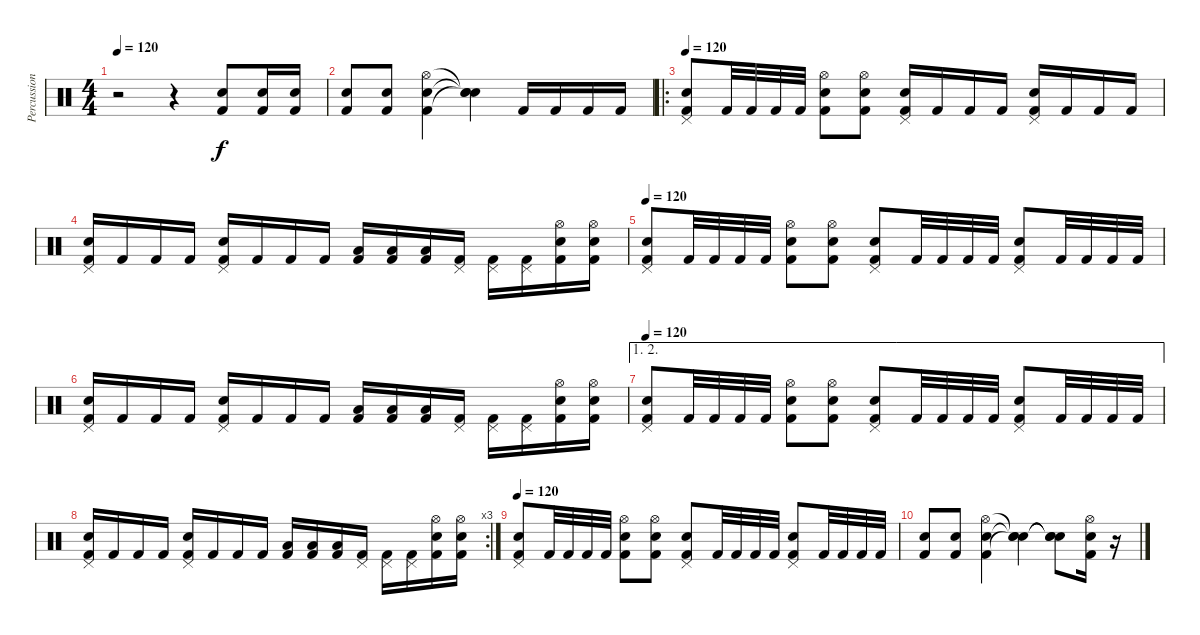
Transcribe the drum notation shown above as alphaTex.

\track ("Percussions" "Percussion") {instrument percussion}
\staff {score}
\articulation defaults
\ts (4 4)
\tempo 120
\clef neutral
\ks c
r.2{dy f} r.4 ("Kick (hit) 2" "Snare (hit) 2").8 ("Kick (hit) 2" "Snare (hit) 2").16 ("Kick (hit) 2" "Snare (hit) 2").16 |
("Kick (hit) 2" "Snare (hit) 2").8 ("Kick (hit) 2" "Snare (hit) 2").8 ("Kick (hit) 2" "Snare (hit) 2" "Hi-Hat (open)").4 ("Snare (hit)"{t} "Snare (hit)"{t} "Snare (hit)"{t}).4 "Kick (hit) 2".16 "Kick (hit) 2".16 "Kick (hit) 2".16 "Kick (hit) 2".16 |
\ro
\tempo 120
("Kick (hit) 2" "Snare (hit) 2" "Pedal Hi-Hat (hit)").8 "Kick (hit) 2".32 "Kick (hit) 2".32 "Kick (hit) 2".32 "Kick (hit) 2".32 ("Kick (hit) 2" "Snare (hit) 2" "Hi-Hat (open)").8 ("Kick (hit) 2" "Snare (hit) 2" "Hi-Hat (open)").8 ("Kick (hit) 2" "Snare (hit) 2" "Pedal Hi-Hat (hit)").16 "Kick (hit) 2".16 "Kick (hit) 2".16 "Kick (hit) 2".16 ("Kick (hit) 2" "Snare (hit) 2" "Pedal Hi-Hat (hit)").16 "Kick (hit) 2".16 "Kick (hit) 2".16 "Kick (hit) 2".16 |
("Kick (hit) 2" "Snare (hit) 2" "Pedal Hi-Hat (hit)").16 "Kick (hit) 2".16 "Kick (hit) 2".16 "Kick (hit) 2".16 ("Kick (hit) 2" "Snare (hit) 2" "Pedal Hi-Hat (hit)").16 "Kick (hit) 2".16 "Kick (hit) 2".16 "Kick (hit) 2".16 ("Kick (hit) 2" "Low Tom (hit)").16 ("Kick (hit) 2" "Low Tom (hit)").16 ("Kick (hit) 2" "Low Tom (hit)").16 ("Kick (hit) 2" "Pedal Hi-Hat (hit)").16 ("Kick (hit) 2" "Pedal Hi-Hat (hit)").16 ("Kick (hit) 2" "Pedal Hi-Hat (hit)").16 ("Kick (hit) 2" "Snare (hit) 2" "Hi-Hat (open)").16 ("Kick (hit) 2" "Snare (hit) 2" "Hi-Hat (open)").16 |
\tempo 120
("Kick (hit) 2" "Snare (hit) 2" "Pedal Hi-Hat (hit)").8 "Kick (hit) 2".32 "Kick (hit) 2".32 "Kick (hit) 2".32 "Kick (hit) 2".32 ("Kick (hit) 2" "Snare (hit) 2" "Hi-Hat (open)").8 ("Kick (hit) 2" "Snare (hit) 2" "Hi-Hat (open)").8 ("Kick (hit) 2" "Snare (hit) 2" "Pedal Hi-Hat (hit)").8 "Kick (hit) 2".32 "Kick (hit) 2".32 "Kick (hit) 2".32 "Kick (hit) 2".32 ("Kick (hit) 2" "Snare (hit) 2" "Pedal Hi-Hat (hit)").8 "Kick (hit) 2".32 "Kick (hit) 2".32 "Kick (hit) 2".32 "Kick (hit) 2".32 |
("Kick (hit) 2" "Snare (hit) 2" "Pedal Hi-Hat (hit)").16 "Kick (hit) 2".16 "Kick (hit) 2".16 "Kick (hit) 2".16 ("Kick (hit) 2" "Snare (hit) 2" "Pedal Hi-Hat (hit)").16 "Kick (hit) 2".16 "Kick (hit) 2".16 "Kick (hit) 2".16 ("Kick (hit) 2" "Low Tom (hit)").16 ("Kick (hit) 2" "Low Tom (hit)").16 ("Kick (hit) 2" "Low Tom (hit)").16 ("Kick (hit) 2" "Pedal Hi-Hat (hit)").16 ("Kick (hit) 2" "Pedal Hi-Hat (hit)").16 ("Kick (hit) 2" "Pedal Hi-Hat (hit)").16 ("Kick (hit) 2" "Snare (hit) 2" "Hi-Hat (open)").16 ("Kick (hit) 2" "Snare (hit) 2" "Hi-Hat (open)").16 |
\ae (1 2)
\tempo 120
("Kick (hit) 2" "Snare (hit) 2" "Pedal Hi-Hat (hit)").8 "Kick (hit) 2".32 "Kick (hit) 2".32 "Kick (hit) 2".32 "Kick (hit) 2".32 ("Kick (hit) 2" "Snare (hit) 2" "Hi-Hat (open)").8 ("Kick (hit) 2" "Snare (hit) 2" "Hi-Hat (open)").8 ("Kick (hit) 2" "Snare (hit) 2" "Pedal Hi-Hat (hit)").8 "Kick (hit) 2".32 "Kick (hit) 2".32 "Kick (hit) 2".32 "Kick (hit) 2".32 ("Kick (hit) 2" "Snare (hit) 2" "Pedal Hi-Hat (hit)").8 "Kick (hit) 2".32 "Kick (hit) 2".32 "Kick (hit) 2".32 "Kick (hit) 2".32 |
\rc 3
("Kick (hit) 2" "Snare (hit) 2" "Pedal Hi-Hat (hit)").16 "Kick (hit) 2".16 "Kick (hit) 2".16 "Kick (hit) 2".16 ("Kick (hit) 2" "Snare (hit) 2" "Pedal Hi-Hat (hit)").16 "Kick (hit) 2".16 "Kick (hit) 2".16 "Kick (hit) 2".16 ("Kick (hit) 2" "Low Tom (hit)").16 ("Kick (hit) 2" "Low Tom (hit)").16 ("Kick (hit) 2" "Low Tom (hit)").16 ("Kick (hit) 2" "Pedal Hi-Hat (hit)").16 ("Kick (hit) 2" "Pedal Hi-Hat (hit)").16 ("Kick (hit) 2" "Pedal Hi-Hat (hit)").16 ("Kick (hit) 2" "Snare (hit) 2" "Hi-Hat (open)").16 ("Kick (hit) 2" "Snare (hit) 2" "Hi-Hat (open)").16 |
\tempo 120
("Kick (hit) 2" "Snare (hit) 2" "Pedal Hi-Hat (hit)").8 "Kick (hit) 2".32 "Kick (hit) 2".32 "Kick (hit) 2".32 "Kick (hit) 2".32 ("Kick (hit) 2" "Snare (hit) 2" "Hi-Hat (open)").8 ("Kick (hit) 2" "Snare (hit) 2" "Hi-Hat (open)").8 ("Kick (hit) 2" "Snare (hit) 2" "Pedal Hi-Hat (hit)").8 "Kick (hit) 2".32 "Kick (hit) 2".32 "Kick (hit) 2".32 "Kick (hit) 2".32 ("Kick (hit) 2" "Snare (hit) 2" "Pedal Hi-Hat (hit)").8 "Kick (hit) 2".32 "Kick (hit) 2".32 "Kick (hit) 2".32 "Kick (hit) 2".32 |
("Kick (hit) 2" "Snare (hit) 2").8 ("Kick (hit) 2" "Snare (hit) 2").8 ("Kick (hit) 2" "Snare (hit) 2" "Hi-Hat (open)").4 ("Snare (hit)"{t} "Snare (hit)"{t} "Snare (hit)"{t}).4 ("Snare (hit)"{t} "Snare (hit)"{t} "Snare (hit)"{t}).8 ("Kick (hit) 2" "Snare (hit) 2" "Hi-Hat (open)").16 r.16
